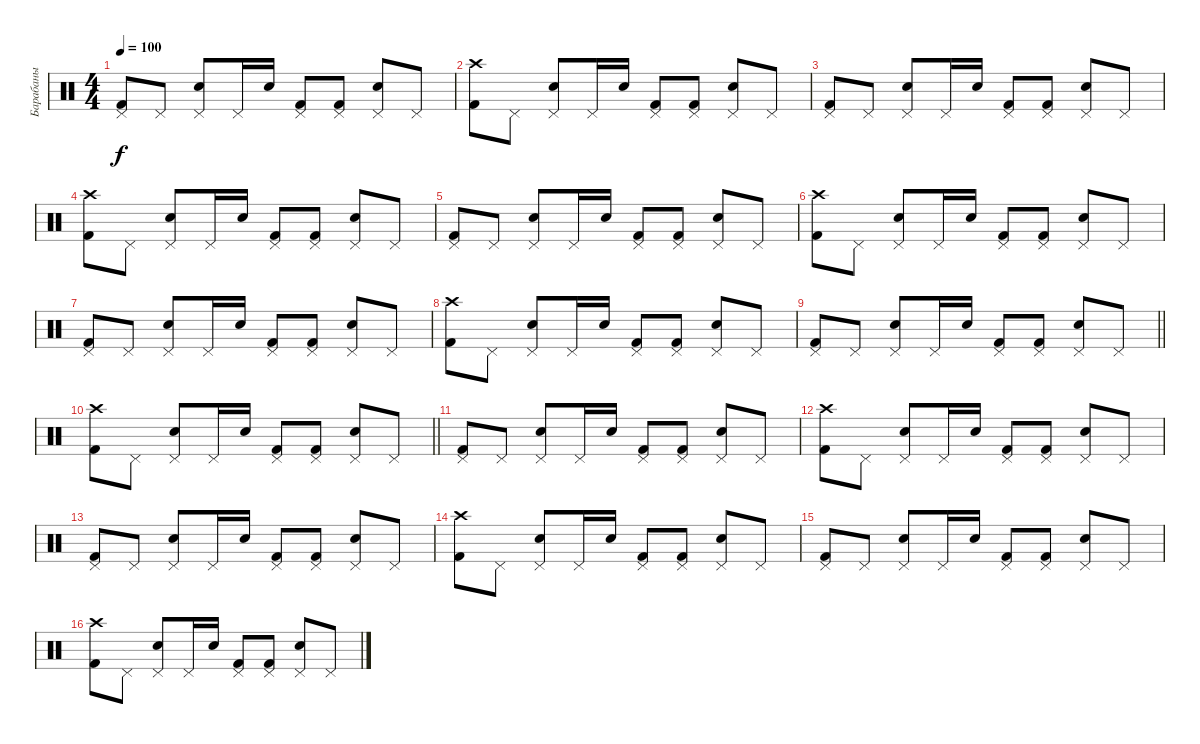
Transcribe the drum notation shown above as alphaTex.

\track ("Барабаны" "Барабаны") {instrument percussion}
\staff {score}
\articulation defaults
\ts (4 4)
\tempo 100
\clef neutral
\ks c
("Pedal Hi-Hat (hit)" "Kick (hit) 2").8{dy f} "Pedal Hi-Hat (hit)".8 ("Pedal Hi-Hat (hit)" "Electric Snare (hit)").8 "Pedal Hi-Hat (hit)".16 "Electric Snare (hit)".16 ("Pedal Hi-Hat (hit)" "Kick (hit) 2").8 ("Pedal Hi-Hat (hit)" "Kick (hit) 2").8 ("Pedal Hi-Hat (hit)" "Electric Snare (hit)").8 "Pedal Hi-Hat (hit)".8 |
("Crash high (hit)" "Kick (hit) 2").8 "Pedal Hi-Hat (hit)".8 ("Pedal Hi-Hat (hit)" "Electric Snare (hit)").8 "Pedal Hi-Hat (hit)".16 "Electric Snare (hit)".16 ("Pedal Hi-Hat (hit)" "Kick (hit) 2").8 ("Pedal Hi-Hat (hit)" "Kick (hit) 2").8 ("Pedal Hi-Hat (hit)" "Electric Snare (hit)").8 "Pedal Hi-Hat (hit)".8 |
("Pedal Hi-Hat (hit)" "Kick (hit) 2").8 "Pedal Hi-Hat (hit)".8 ("Pedal Hi-Hat (hit)" "Electric Snare (hit)").8 "Pedal Hi-Hat (hit)".16 "Electric Snare (hit)".16 ("Pedal Hi-Hat (hit)" "Kick (hit) 2").8 ("Pedal Hi-Hat (hit)" "Kick (hit) 2").8 ("Pedal Hi-Hat (hit)" "Electric Snare (hit)").8 "Pedal Hi-Hat (hit)".8 |
("Crash high (hit)" "Kick (hit) 2").8 "Pedal Hi-Hat (hit)".8 ("Pedal Hi-Hat (hit)" "Electric Snare (hit)").8 "Pedal Hi-Hat (hit)".16 "Electric Snare (hit)".16 ("Pedal Hi-Hat (hit)" "Kick (hit) 2").8 ("Pedal Hi-Hat (hit)" "Kick (hit) 2").8 ("Pedal Hi-Hat (hit)" "Electric Snare (hit)").8 "Pedal Hi-Hat (hit)".8 |
("Pedal Hi-Hat (hit)" "Kick (hit) 2").8 "Pedal Hi-Hat (hit)".8 ("Pedal Hi-Hat (hit)" "Electric Snare (hit)").8 "Pedal Hi-Hat (hit)".16 "Electric Snare (hit)".16 ("Pedal Hi-Hat (hit)" "Kick (hit) 2").8 ("Pedal Hi-Hat (hit)" "Kick (hit) 2").8 ("Pedal Hi-Hat (hit)" "Electric Snare (hit)").8 "Pedal Hi-Hat (hit)".8 |
("Crash high (hit)" "Kick (hit) 2").8 "Pedal Hi-Hat (hit)".8 ("Pedal Hi-Hat (hit)" "Electric Snare (hit)").8 "Pedal Hi-Hat (hit)".16 "Electric Snare (hit)".16 ("Pedal Hi-Hat (hit)" "Kick (hit) 2").8 ("Pedal Hi-Hat (hit)" "Kick (hit) 2").8 ("Pedal Hi-Hat (hit)" "Electric Snare (hit)").8 "Pedal Hi-Hat (hit)".8 |
("Pedal Hi-Hat (hit)" "Kick (hit) 2").8 "Pedal Hi-Hat (hit)".8 ("Pedal Hi-Hat (hit)" "Electric Snare (hit)").8 "Pedal Hi-Hat (hit)".16 "Electric Snare (hit)".16 ("Pedal Hi-Hat (hit)" "Kick (hit) 2").8 ("Pedal Hi-Hat (hit)" "Kick (hit) 2").8 ("Pedal Hi-Hat (hit)" "Electric Snare (hit)").8 "Pedal Hi-Hat (hit)".8 |
("Crash high (hit)" "Kick (hit) 2").8 "Pedal Hi-Hat (hit)".8 ("Pedal Hi-Hat (hit)" "Electric Snare (hit)").8 "Pedal Hi-Hat (hit)".16 "Electric Snare (hit)".16 ("Pedal Hi-Hat (hit)" "Kick (hit) 2").8 ("Pedal Hi-Hat (hit)" "Kick (hit) 2").8 ("Pedal Hi-Hat (hit)" "Electric Snare (hit)").8 "Pedal Hi-Hat (hit)".8 |
\barLineRight lightlight
("Pedal Hi-Hat (hit)" "Kick (hit) 2").8 "Pedal Hi-Hat (hit)".8 ("Pedal Hi-Hat (hit)" "Electric Snare (hit)").8 "Pedal Hi-Hat (hit)".16 "Electric Snare (hit)".16 ("Pedal Hi-Hat (hit)" "Kick (hit) 2").8 ("Pedal Hi-Hat (hit)" "Kick (hit) 2").8 ("Pedal Hi-Hat (hit)" "Electric Snare (hit)").8 "Pedal Hi-Hat (hit)".8 |
\barLineRight lightlight
("Crash high (hit)" "Kick (hit) 2").8 "Pedal Hi-Hat (hit)".8 ("Pedal Hi-Hat (hit)" "Electric Snare (hit)").8 "Pedal Hi-Hat (hit)".16 "Electric Snare (hit)".16 ("Pedal Hi-Hat (hit)" "Kick (hit) 2").8 ("Pedal Hi-Hat (hit)" "Kick (hit) 2").8 ("Pedal Hi-Hat (hit)" "Electric Snare (hit)").8 "Pedal Hi-Hat (hit)".8 |
("Pedal Hi-Hat (hit)" "Kick (hit) 2").8 "Pedal Hi-Hat (hit)".8 ("Pedal Hi-Hat (hit)" "Electric Snare (hit)").8 "Pedal Hi-Hat (hit)".16 "Electric Snare (hit)".16 ("Pedal Hi-Hat (hit)" "Kick (hit) 2").8 ("Pedal Hi-Hat (hit)" "Kick (hit) 2").8 ("Pedal Hi-Hat (hit)" "Electric Snare (hit)").8 "Pedal Hi-Hat (hit)".8 |
("Crash high (hit)" "Kick (hit) 2").8 "Pedal Hi-Hat (hit)".8 ("Pedal Hi-Hat (hit)" "Electric Snare (hit)").8 "Pedal Hi-Hat (hit)".16 "Electric Snare (hit)".16 ("Pedal Hi-Hat (hit)" "Kick (hit) 2").8 ("Pedal Hi-Hat (hit)" "Kick (hit) 2").8 ("Pedal Hi-Hat (hit)" "Electric Snare (hit)").8 "Pedal Hi-Hat (hit)".8 |
("Pedal Hi-Hat (hit)" "Kick (hit) 2").8 "Pedal Hi-Hat (hit)".8 ("Pedal Hi-Hat (hit)" "Electric Snare (hit)").8 "Pedal Hi-Hat (hit)".16 "Electric Snare (hit)".16 ("Pedal Hi-Hat (hit)" "Kick (hit) 2").8 ("Pedal Hi-Hat (hit)" "Kick (hit) 2").8 ("Pedal Hi-Hat (hit)" "Electric Snare (hit)").8 "Pedal Hi-Hat (hit)".8 |
("Crash high (hit)" "Kick (hit) 2").8 "Pedal Hi-Hat (hit)".8 ("Pedal Hi-Hat (hit)" "Electric Snare (hit)").8 "Pedal Hi-Hat (hit)".16 "Electric Snare (hit)".16 ("Pedal Hi-Hat (hit)" "Kick (hit) 2").8 ("Pedal Hi-Hat (hit)" "Kick (hit) 2").8 ("Pedal Hi-Hat (hit)" "Electric Snare (hit)").8 "Pedal Hi-Hat (hit)".8 |
("Pedal Hi-Hat (hit)" "Kick (hit) 2").8 "Pedal Hi-Hat (hit)".8 ("Pedal Hi-Hat (hit)" "Electric Snare (hit)").8 "Pedal Hi-Hat (hit)".16 "Electric Snare (hit)".16 ("Pedal Hi-Hat (hit)" "Kick (hit) 2").8 ("Pedal Hi-Hat (hit)" "Kick (hit) 2").8 ("Pedal Hi-Hat (hit)" "Electric Snare (hit)").8 "Pedal Hi-Hat (hit)".8 |
("Crash high (hit)" "Kick (hit) 2").8 "Pedal Hi-Hat (hit)".8 ("Pedal Hi-Hat (hit)" "Electric Snare (hit)").8 "Pedal Hi-Hat (hit)".16 "Electric Snare (hit)".16 ("Pedal Hi-Hat (hit)" "Kick (hit) 2").8 ("Pedal Hi-Hat (hit)" "Kick (hit) 2").8 ("Pedal Hi-Hat (hit)" "Electric Snare (hit)").8 "Pedal Hi-Hat (hit)".8
